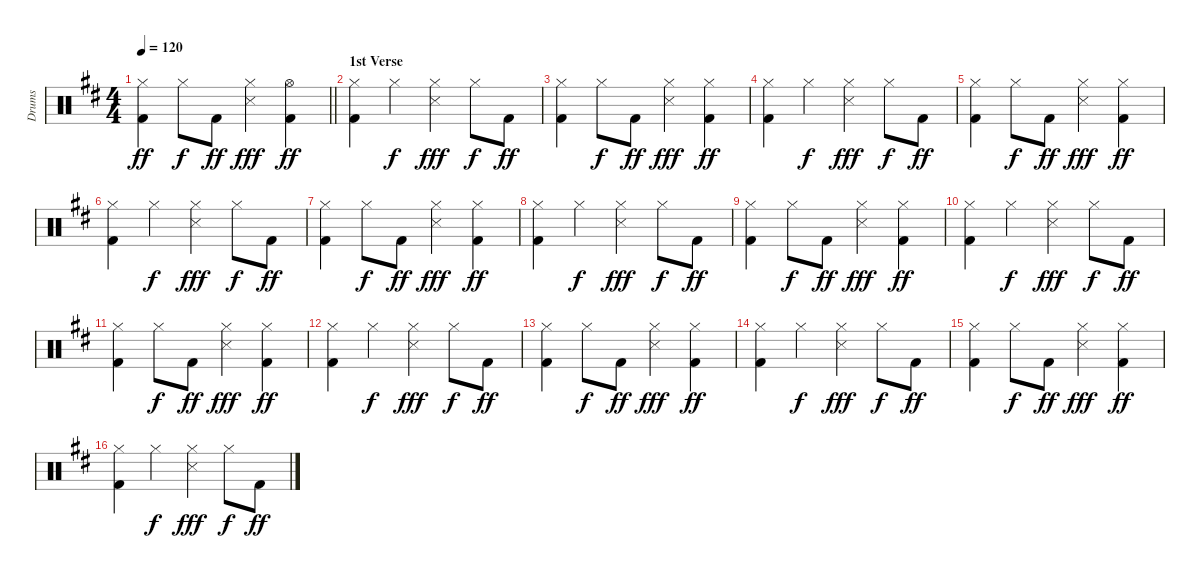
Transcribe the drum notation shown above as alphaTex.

\track ("Drums" "Drums") {instrument percussion}
\staff {score}
\articulation defaults
\ts (4 4)
\tempo 120
\clef neutral
\barLineRight lightlight
\ks d
("Kick (hit) 2" "Hi-Hat (closed)").4{dy ff} "Hi-Hat (closed)".8{dy f} "Kick (hit) 2".8{dy ff} ("Snare (side stick) 3" "Hi-Hat (closed)").4{dy fff} ("Kick (hit) 2" "Hi-Hat (open)").4{dy ff} |
\section ("" "1st Verse")
("Kick (hit) 2" "Hi-Hat (closed)").4 "Hi-Hat (closed)".4{dy f} ("Snare (side stick) 3" "Hi-Hat (closed)").4{dy fff} "Hi-Hat (closed)".8{dy f} "Kick (hit) 2".8{dy ff} |
("Kick (hit) 2" "Hi-Hat (closed)").4 "Hi-Hat (closed)".8{dy f} "Kick (hit) 2".8{dy ff} ("Snare (side stick) 3" "Hi-Hat (closed)").4{dy fff} ("Kick (hit) 2" "Hi-Hat (closed)").4{dy ff} |
("Kick (hit) 2" "Hi-Hat (closed)").4 "Hi-Hat (closed)".4{dy f} ("Snare (side stick) 3" "Hi-Hat (closed)").4{dy fff} "Hi-Hat (closed)".8{dy f} "Kick (hit) 2".8{dy ff} |
("Kick (hit) 2" "Hi-Hat (closed)").4 "Hi-Hat (closed)".8{dy f} "Kick (hit) 2".8{dy ff} ("Snare (side stick) 3" "Hi-Hat (closed)").4{dy fff} ("Kick (hit) 2" "Hi-Hat (closed)").4{dy ff} |
("Kick (hit) 2" "Hi-Hat (closed)").4 "Hi-Hat (closed)".4{dy f} ("Snare (side stick) 3" "Hi-Hat (closed)").4{dy fff} "Hi-Hat (closed)".8{dy f} "Kick (hit) 2".8{dy ff} |
("Kick (hit) 2" "Hi-Hat (closed)").4 "Hi-Hat (closed)".8{dy f} "Kick (hit) 2".8{dy ff} ("Snare (side stick) 3" "Hi-Hat (closed)").4{dy fff} ("Kick (hit) 2" "Hi-Hat (closed)").4{dy ff} |
("Kick (hit) 2" "Hi-Hat (closed)").4 "Hi-Hat (closed)".4{dy f} ("Snare (side stick) 3" "Hi-Hat (closed)").4{dy fff} "Hi-Hat (closed)".8{dy f} "Kick (hit) 2".8{dy ff} |
("Kick (hit) 2" "Hi-Hat (closed)").4 "Hi-Hat (closed)".8{dy f} "Kick (hit) 2".8{dy ff} ("Snare (side stick) 3" "Hi-Hat (closed)").4{dy fff} ("Kick (hit) 2" "Hi-Hat (closed)").4{dy ff} |
("Kick (hit) 2" "Hi-Hat (closed)").4 "Hi-Hat (closed)".4{dy f} ("Snare (side stick) 3" "Hi-Hat (closed)").4{dy fff} "Hi-Hat (closed)".8{dy f} "Kick (hit) 2".8{dy ff} |
("Kick (hit) 2" "Hi-Hat (closed)").4 "Hi-Hat (closed)".8{dy f} "Kick (hit) 2".8{dy ff} ("Snare (side stick) 3" "Hi-Hat (closed)").4{dy fff} ("Kick (hit) 2" "Hi-Hat (closed)").4{dy ff} |
("Kick (hit) 2" "Hi-Hat (closed)").4 "Hi-Hat (closed)".4{dy f} ("Snare (side stick) 3" "Hi-Hat (closed)").4{dy fff} "Hi-Hat (closed)".8{dy f} "Kick (hit) 2".8{dy ff} |
("Kick (hit) 2" "Hi-Hat (closed)").4 "Hi-Hat (closed)".8{dy f} "Kick (hit) 2".8{dy ff} ("Snare (side stick) 3" "Hi-Hat (closed)").4{dy fff} ("Kick (hit) 2" "Hi-Hat (closed)").4{dy ff} |
("Kick (hit) 2" "Hi-Hat (closed)").4 "Hi-Hat (closed)".4{dy f} ("Snare (side stick) 3" "Hi-Hat (closed)").4{dy fff} "Hi-Hat (closed)".8{dy f} "Kick (hit) 2".8{dy ff} |
("Kick (hit) 2" "Hi-Hat (closed)").4 "Hi-Hat (closed)".8{dy f} "Kick (hit) 2".8{dy ff} ("Snare (side stick) 3" "Hi-Hat (closed)").4{dy fff} ("Kick (hit) 2" "Hi-Hat (closed)").4{dy ff} |
("Kick (hit) 2" "Hi-Hat (closed)").4 "Hi-Hat (closed)".4{dy f} ("Snare (side stick) 3" "Hi-Hat (closed)").4{dy fff} "Hi-Hat (closed)".8{dy f} "Kick (hit) 2".8{dy ff}
